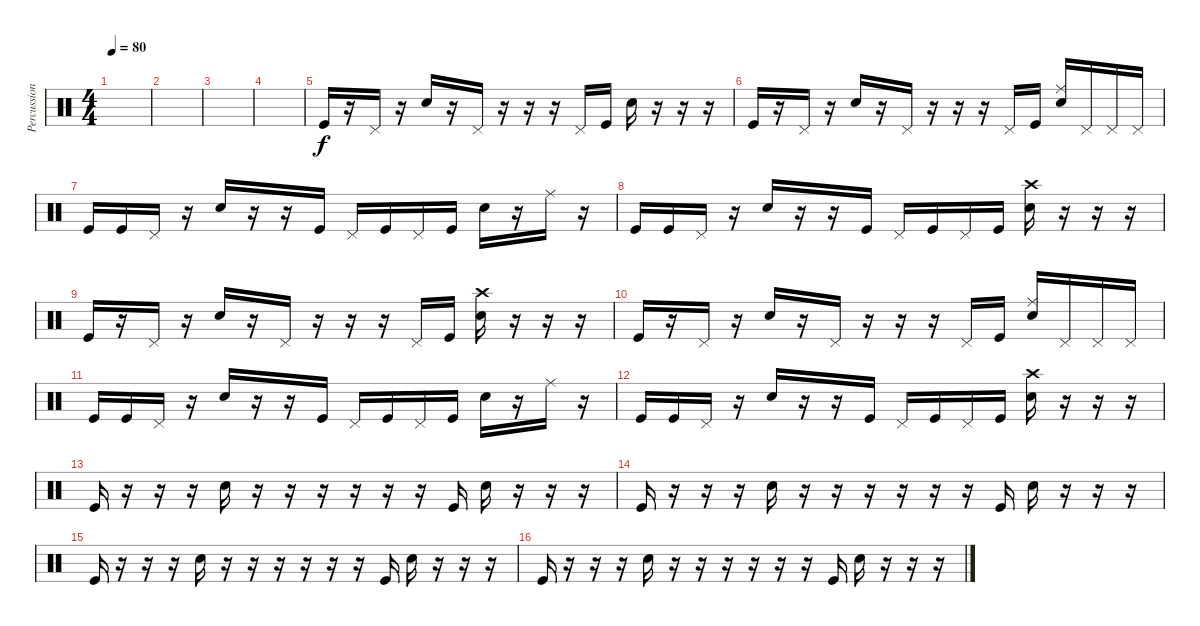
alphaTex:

\track ("Percussions" "Percussion") {instrument percussion}
\staff {score}
\articulation defaults
\ts (4 4)
\tempo 80
\clef neutral
\ks c
|
|
|
|
"Kick (hit)".16 r.16 "Pedal Hi-Hat (hit)".16 r.16 "Electric Snare (hit)".16 r.16 "Pedal Hi-Hat (hit)".16 r.16 r.16 r.16 "Pedal Hi-Hat (hit)".16 "Kick (hit)".16 "Electric Snare (hit)".16 r.16 r.16 r.16 |
"Kick (hit)".16 r.16 "Pedal Hi-Hat (hit)".16 r.16 "Electric Snare (hit)".16 r.16 "Pedal Hi-Hat (hit)".16 r.16 r.16 r.16 "Pedal Hi-Hat (hit)".16 "Kick (hit)".16 ("Ride (middle)" "Electric Snare (hit)").16 "Pedal Hi-Hat (hit)".16 "Pedal Hi-Hat (hit)".16 "Pedal Hi-Hat (hit)".16 |
"Kick (hit)".16 "Kick (hit)".16 "Pedal Hi-Hat (hit)".16 r.16 "Electric Snare (hit)".16 r.16 r.16 "Kick (hit)".16 "Pedal Hi-Hat (hit)".16 "Kick (hit)".16 "Pedal Hi-Hat (hit)".16 "Kick (hit)".16 "Electric Snare (hit)".16 r.16 "Ride (middle)".16 r.16 |
"Kick (hit)".16 "Kick (hit)".16 "Pedal Hi-Hat (hit)".16 r.16 "Electric Snare (hit)".16 r.16 r.16 "Kick (hit)".16 "Pedal Hi-Hat (hit)".16 "Kick (hit)".16 "Pedal Hi-Hat (hit)".16 "Kick (hit)".16 ("Crash high (hit)" "Electric Snare (hit)").16 r.16 r.16 r.16 |
"Kick (hit)".16 r.16 "Pedal Hi-Hat (hit)".16 r.16 "Electric Snare (hit)".16 r.16 "Pedal Hi-Hat (hit)".16 r.16 r.16 r.16 "Pedal Hi-Hat (hit)".16 "Kick (hit)".16 ("Crash high (hit)" "Electric Snare (hit)").16 r.16 r.16 r.16 |
"Kick (hit)".16 r.16 "Pedal Hi-Hat (hit)".16 r.16 "Electric Snare (hit)".16 r.16 "Pedal Hi-Hat (hit)".16 r.16 r.16 r.16 "Pedal Hi-Hat (hit)".16 "Kick (hit)".16 ("Ride (middle)" "Electric Snare (hit)").16 "Pedal Hi-Hat (hit)".16 "Pedal Hi-Hat (hit)".16 "Pedal Hi-Hat (hit)".16 |
"Kick (hit)".16 "Kick (hit)".16 "Pedal Hi-Hat (hit)".16 r.16 "Electric Snare (hit)".16 r.16 r.16 "Kick (hit)".16 "Pedal Hi-Hat (hit)".16 "Kick (hit)".16 "Pedal Hi-Hat (hit)".16 "Kick (hit)".16 "Electric Snare (hit)".16 r.16 "Ride (middle)".16 r.16 |
"Kick (hit)".16 "Kick (hit)".16 "Pedal Hi-Hat (hit)".16 r.16 "Electric Snare (hit)".16 r.16 r.16 "Kick (hit)".16 "Pedal Hi-Hat (hit)".16 "Kick (hit)".16 "Pedal Hi-Hat (hit)".16 "Kick (hit)".16 ("Crash high (hit)" "Electric Snare (hit)").16 r.16 r.16 r.16 |
"Kick (hit)".16 r.16 r.16 r.16 "Electric Snare (hit)".16 r.16 r.16 r.16 r.16 r.16 r.16 "Kick (hit)".16 "Electric Snare (hit)".16 r.16 r.16 r.16 |
"Kick (hit)".16 r.16 r.16 r.16 "Electric Snare (hit)".16 r.16 r.16 r.16 r.16 r.16 r.16 "Kick (hit)".16 "Electric Snare (hit)".16 r.16 r.16 r.16 |
"Kick (hit)".16 r.16 r.16 r.16 "Electric Snare (hit)".16 r.16 r.16 r.16 r.16 r.16 r.16 "Kick (hit)".16 "Electric Snare (hit)".16 r.16 r.16 r.16 |
"Kick (hit)".16 r.16 r.16 r.16 "Electric Snare (hit)".16 r.16 r.16 r.16 r.16 r.16 r.16 "Kick (hit)".16 "Electric Snare (hit)".16 r.16 r.16 r.16
